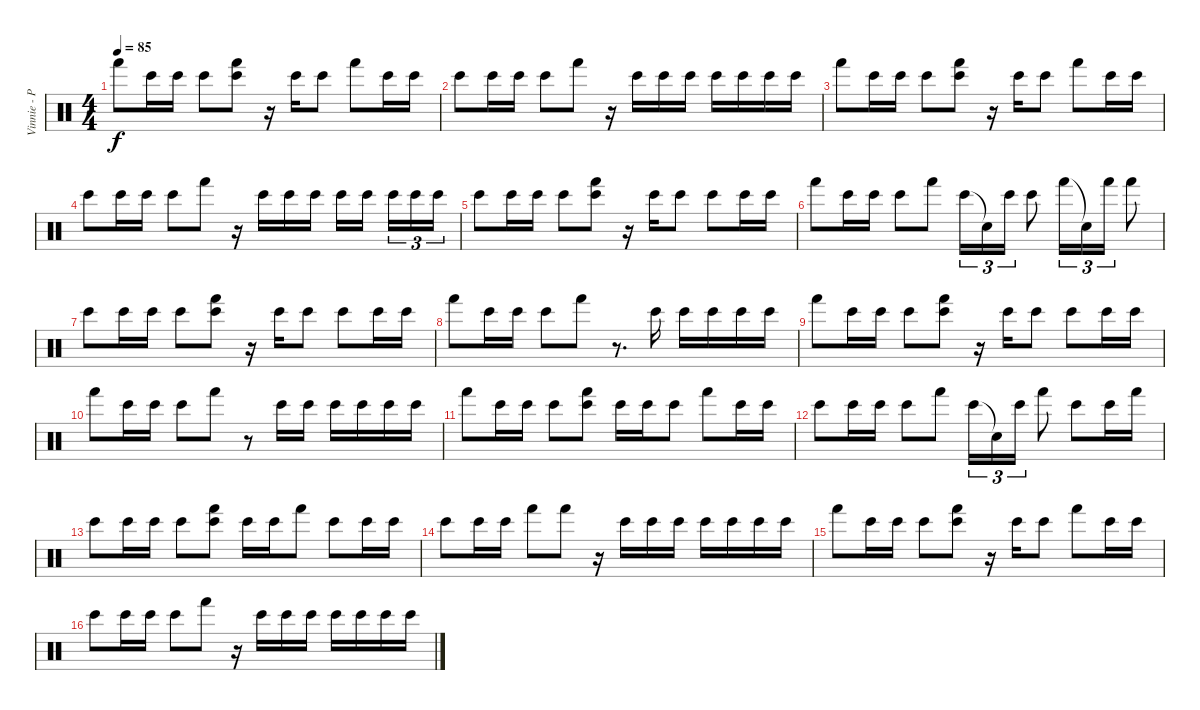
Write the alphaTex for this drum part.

\track ("Vinnie - Percusion" "Vinnie - P") {instrument percussion}
\staff {score}
\articulation defaults
\ts (4 4)
\tempo 85
\clef neutral
\ks c "Hand (hit)".8{dy f} "Bongo High (hit)".16 "Bongo High (hit)".16 "Bongo High (hit)".8
("Bongo High (hit)" "Hand (hit)").8 r.16 "Bongo High (hit)".16 "Bongo High (hit)".8 "Hand (hit)".8 "Bongo High (hit)".16 "Bongo High (hit)".16 |
"Bongo High (hit)".8 "Bongo High (hit)".16 "Bongo High (hit)".16 "Bongo High (hit)".8 "Hand (hit)".8 r.16 "Bongo High (hit)".16 "Bongo High (hit)".16 "Bongo High (hit)".16 "Bongo High (hit)".16 "Bongo High (hit)".16 "Bongo High (hit)".16 "Bongo High (hit)".16 |
"Hand (hit)".8 "Bongo High (hit)".16 "Bongo High (hit)".16 "Bongo High (hit)".8 ("Bongo High (hit)" "Hand (hit)").8 r.16 "Bongo High (hit)".16 "Bongo High (hit)".8 "Hand (hit)".8 "Bongo High (hit)".16 "Bongo High (hit)".16 |
"Bongo High (hit)".8 "Bongo High (hit)".16 "Bongo High (hit)".16 "Bongo High (hit)".8 "Hand (hit)".8 r.16 "Bongo High (hit)".16 "Bongo High (hit)".16 "Bongo High (hit)".16 "Bongo High (hit)".16 "Bongo High (hit)".16 "Bongo High (hit)".16{tu (3 2)} "Bongo High (hit)".16{tu (3 2)} "Bongo High (hit)".16{tu (3 2)} |
"Bongo High (hit)".8 "Bongo High (hit)".16 "Bongo High (hit)".16 "Bongo High (hit)".8 ("Bongo High (hit)" "Hand (hit)").8 r.16 "Bongo High (hit)".16 "Bongo High (hit)".8 "Bongo High (hit)".8 "Bongo High (hit)".16 "Bongo High (hit)".16 |
"Hand (hit)".8 "Bongo High (hit)".16 "Bongo High (hit)".16 "Bongo High (hit)".8 "Hand (hit)".8 "Bongo High (hit)".16{tu (3 2)} "Snare (hit)"{t}.16{tu (3 2)} "Bongo High (hit)".16{tu (3 2)} "Bongo High (hit)".8 "Hand (hit)".16{tu (3 2)} "Snare (hit)"{t}.16{tu (3 2)} "Hand (hit)".16{tu (3 2)} "Hand (hit)".8 |
"Bongo High (hit)".8 "Bongo High (hit)".16 "Bongo High (hit)".16 "Bongo High (hit)".8 ("Bongo High (hit)" "Hand (hit)").8 r.16 "Bongo High (hit)".16 "Bongo High (hit)".8 "Bongo High (hit)".8 "Bongo High (hit)".16 "Bongo High (hit)".16 |
"Hand (hit)".8 "Bongo High (hit)".16 "Bongo High (hit)".16 "Bongo High (hit)".8 "Hand (hit)".8 r.8{d} "Bongo High (hit)".16 "Bongo High (hit)".16 "Bongo High (hit)".16 "Bongo High (hit)".16 "Bongo High (hit)".16 |
"Hand (hit)".8 "Bongo High (hit)".16 "Bongo High (hit)".16 "Bongo High (hit)".8 ("Bongo High (hit)" "Hand (hit)").8 r.16 "Bongo High (hit)".16 "Bongo High (hit)".8 "Bongo High (hit)".8 "Bongo High (hit)".16 "Bongo High (hit)".16 |
"Hand (hit)".8 "Bongo High (hit)".16 "Bongo High (hit)".16 "Bongo High (hit)".8 "Hand (hit)".8 r.8 "Bongo High (hit)".16 "Bongo High (hit)".16 "Bongo High (hit)".16 "Bongo High (hit)".16 "Bongo High (hit)".16 "Bongo High (hit)".16 |
"Hand (hit)".8 "Bongo High (hit)".16 "Bongo High (hit)".16 "Bongo High (hit)".8 ("Bongo High (hit)" "Hand (hit)").8 "Bongo High (hit)".16 "Bongo High (hit)".16 "Bongo High (hit)".8 "Hand (hit)".8 "Bongo High (hit)".16 "Bongo High (hit)".16 |
"Bongo High (hit)".8 "Bongo High (hit)".16 "Bongo High (hit)".16 "Bongo High (hit)".8 "Hand (hit)".8 "Bongo High (hit)".16{tu (3 2)} "Snare (hit)"{t}.16{tu (3 2)} "Bongo High (hit)".16{tu (3 2)} "Hand (hit)".8 "Bongo High (hit)".8 "Bongo High (hit)".16 "Hand (hit)".16 |
"Bongo High (hit)".8 "Bongo High (hit)".16 "Bongo High (hit)".16 "Bongo High (hit)".8 ("Bongo High (hit)" "Hand (hit)").8 "Bongo High (hit)".16 "Bongo High (hit)".16 "Hand (hit)".8 "Bongo High (hit)".8 "Bongo High (hit)".16 "Bongo High (hit)".16 |
"Bongo High (hit)".8 "Bongo High (hit)".16 "Bongo High (hit)".16 "Hand (hit)".8 "Hand (hit)".8 r.16 "Bongo High (hit)".16 "Bongo High (hit)".16 "Bongo High (hit)".16 "Bongo High (hit)".16 "Bongo High (hit)".16 "Bongo High (hit)".16 "Bongo High (hit)".16 |
"Hand (hit)".8 "Bongo High (hit)".16 "Bongo High (hit)".16 "Bongo High (hit)".8 ("Bongo High (hit)" "Hand (hit)").8 r.16 "Bongo High (hit)".16 "Bongo High (hit)".8 "Hand (hit)".8 "Bongo High (hit)".16 "Bongo High (hit)".16 |
"Bongo High (hit)".8 "Bongo High (hit)".16 "Bongo High (hit)".16 "Bongo High (hit)".8 "Hand (hit)".8 r.16 "Bongo High (hit)".16 "Bongo High (hit)".16 "Bongo High (hit)".16 "Bongo High (hit)".16 "Bongo High (hit)".16 "Bongo High (hit)".16 "Bongo High (hit)".16
